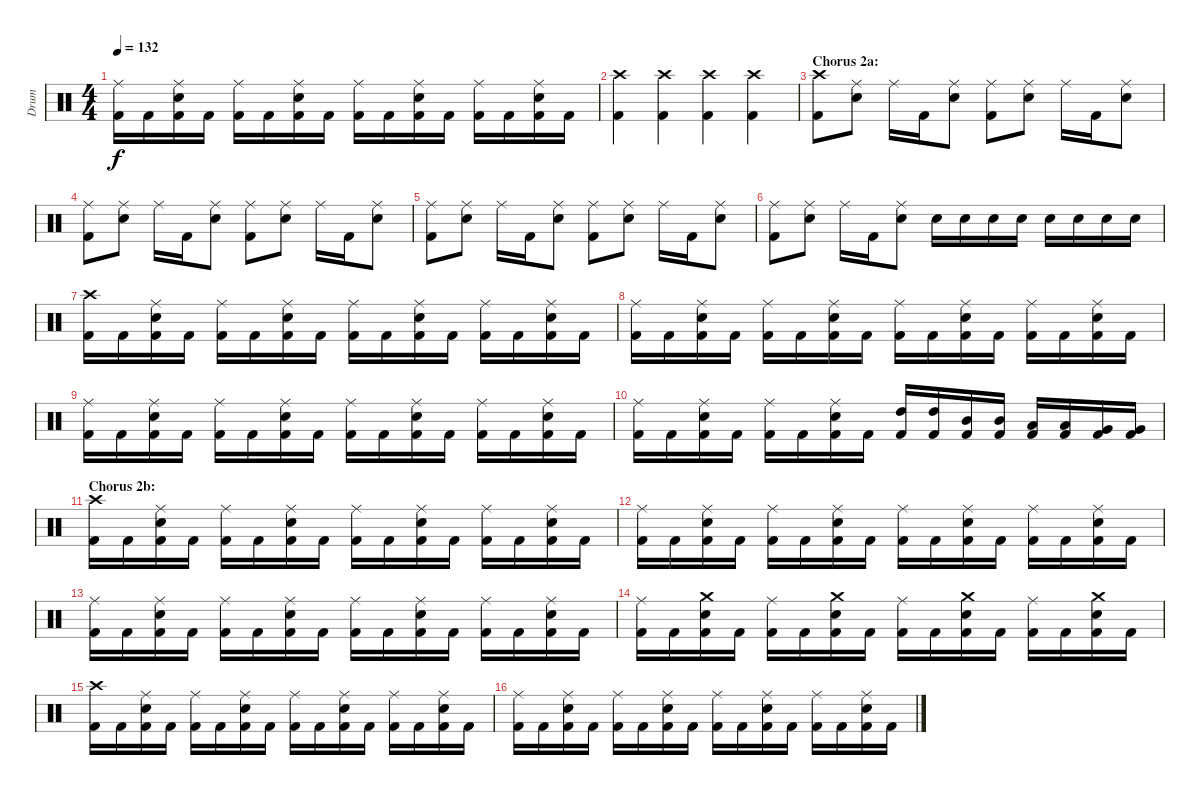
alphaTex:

\track ("Drum" "Drum") {instrument percussion}
\staff {score}
\articulation defaults
\ts (4 4)
\tempo 132
\clef neutral
\ks c
("Kick (hit) 2" "Ride (middle)").16{dy f} "Kick (hit) 2".16 ("Kick (hit) 2" "Snare (hit) 2" "Ride (middle)").16 "Kick (hit) 2".16 ("Kick (hit) 2" "Ride (middle)").16 "Kick (hit) 2".16 ("Kick (hit) 2" "Snare (hit) 2" "Ride (middle)").16 "Kick (hit) 2".16 ("Kick (hit) 2" "Ride (middle)").16 "Kick (hit) 2".16 ("Kick (hit) 2" "Snare (hit) 2" "Ride (middle)").16 "Kick (hit) 2".16 ("Kick (hit) 2" "Ride (middle)").16 "Kick (hit) 2".16 ("Kick (hit) 2" "Snare (hit) 2" "Ride (middle)").16 "Kick (hit) 2".16 |
("Kick (hit) 2" "Crash high (hit)").4 ("Kick (hit) 2" "Crash high (hit)").4 ("Kick (hit) 2" "Crash high (hit)").4 ("Kick (hit) 2" "Crash high (hit)").4 |
\section ("" "Chorus 2a:")
("Kick (hit) 2" "Crash high (hit)").8 ("Snare (hit) 2" "Ride (middle)").8 "Ride (middle)".16 "Kick (hit) 2".16 ("Snare (hit) 2" "Ride (middle)").8 ("Kick (hit) 2" "Ride (middle)").8 ("Snare (hit) 2" "Ride (middle)").8 "Ride (middle)".16 "Kick (hit) 2".16 ("Snare (hit) 2" "Ride (middle)").8 |
("Kick (hit) 2" "Ride (middle)").8 ("Snare (hit) 2" "Ride (middle)").8 "Ride (middle)".16 "Kick (hit) 2".16 ("Snare (hit) 2" "Ride (middle)").8 ("Kick (hit) 2" "Ride (middle)").8 ("Snare (hit) 2" "Ride (middle)").8 "Ride (middle)".16 "Kick (hit) 2".16 ("Snare (hit) 2" "Ride (middle)").8 |
("Kick (hit) 2" "Ride (middle)").8 ("Snare (hit) 2" "Ride (middle)").8 "Ride (middle)".16 "Kick (hit) 2".16 ("Snare (hit) 2" "Ride (middle)").8 ("Kick (hit) 2" "Ride (middle)").8 ("Snare (hit) 2" "Ride (middle)").8 "Ride (middle)".16 "Kick (hit) 2".16 ("Snare (hit) 2" "Ride (middle)").8 |
("Kick (hit) 2" "Ride (middle)").8 ("Snare (hit) 2" "Ride (middle)").8 "Ride (middle)".16 "Kick (hit) 2".16 ("Snare (hit) 2" "Ride (middle)").8 "Snare (hit) 2".16 "Snare (hit) 2".16 "Snare (hit) 2".16 "Snare (hit) 2".16 "Snare (hit) 2".16 "Snare (hit) 2".16 "Snare (hit) 2".16 "Snare (hit) 2".16 |
("Kick (hit) 2" "Crash high (hit)").16 "Kick (hit) 2".16 ("Kick (hit) 2" "Snare (hit) 2" "Ride (middle)").16 "Kick (hit) 2".16 ("Kick (hit) 2" "Ride (middle)").16 "Kick (hit) 2".16 ("Kick (hit) 2" "Snare (hit) 2" "Ride (middle)").16 "Kick (hit) 2".16 ("Kick (hit) 2" "Ride (middle)").16 "Kick (hit) 2".16 ("Kick (hit) 2" "Snare (hit) 2" "Ride (middle)").16 "Kick (hit) 2".16 ("Kick (hit) 2" "Ride (middle)").16 "Kick (hit) 2".16 ("Kick (hit) 2" "Snare (hit) 2" "Ride (middle)").16 "Kick (hit) 2".16 |
("Kick (hit) 2" "Ride (middle)").16 "Kick (hit) 2".16 ("Kick (hit) 2" "Snare (hit) 2" "Ride (middle)").16 "Kick (hit) 2".16 ("Kick (hit) 2" "Ride (middle)").16 "Kick (hit) 2".16 ("Kick (hit) 2" "Snare (hit) 2" "Ride (middle)").16 "Kick (hit) 2".16 ("Kick (hit) 2" "Ride (middle)").16 "Kick (hit) 2".16 ("Kick (hit) 2" "Snare (hit) 2" "Ride (middle)").16 "Kick (hit) 2".16 ("Kick (hit) 2" "Ride (middle)").16 "Kick (hit) 2".16 ("Kick (hit) 2" "Snare (hit) 2" "Ride (middle)").16 "Kick (hit) 2".16 |
("Kick (hit) 2" "Ride (middle)").16 "Kick (hit) 2".16 ("Kick (hit) 2" "Snare (hit) 2" "Ride (middle)").16 "Kick (hit) 2".16 ("Kick (hit) 2" "Ride (middle)").16 "Kick (hit) 2".16 ("Kick (hit) 2" "Snare (hit) 2" "Ride (middle)").16 "Kick (hit) 2".16 ("Kick (hit) 2" "Ride (middle)").16 "Kick (hit) 2".16 ("Kick (hit) 2" "Snare (hit) 2" "Ride (middle)").16 "Kick (hit) 2".16 ("Kick (hit) 2" "Ride (middle)").16 "Kick (hit) 2".16 ("Kick (hit) 2" "Snare (hit) 2" "Ride (middle)").16 "Kick (hit) 2".16 |
("Kick (hit) 2" "Ride (middle)").16 "Kick (hit) 2".16 ("Kick (hit) 2" "Snare (hit) 2" "Ride (middle)").16 "Kick (hit) 2".16 ("Kick (hit) 2" "Ride (middle)").16 "Kick (hit) 2".16 ("Kick (hit) 2" "Snare (hit) 2" "Ride (middle)").16 "Kick (hit) 2".16 ("Kick (hit) 2" "High Tom (hit)").16 ("Kick (hit) 2" "High Tom (hit)").16 ("Kick (hit) 2" "Mid Tom (hit)").16 ("Kick (hit) 2" "Mid Tom (hit)").16 ("Kick (hit) 2" "Low Tom (hit)").16 ("Kick (hit) 2" "Low Tom (hit)").16 ("Kick (hit) 2" "Very Low Tom (hit)").16 ("Kick (hit) 2" "Very Low Tom (hit)").16 |
\section ("" "Chorus 2b:")
("Kick (hit) 2" "Crash high (hit)").16 "Kick (hit) 2".16 ("Kick (hit) 2" "Snare (hit) 2" "Ride (middle)").16 "Kick (hit) 2".16 ("Kick (hit) 2" "Ride (middle)").16 "Kick (hit) 2".16 ("Kick (hit) 2" "Snare (hit) 2" "Ride (middle)").16 "Kick (hit) 2".16 ("Kick (hit) 2" "Ride (middle)").16 "Kick (hit) 2".16 ("Kick (hit) 2" "Snare (hit) 2" "Ride (middle)").16 "Kick (hit) 2".16 ("Kick (hit) 2" "Ride (middle)").16 "Kick (hit) 2".16 ("Kick (hit) 2" "Snare (hit) 2" "Ride (middle)").16 "Kick (hit) 2".16 |
("Kick (hit) 2" "Ride (middle)").16 "Kick (hit) 2".16 ("Kick (hit) 2" "Snare (hit) 2" "Ride (middle)").16 "Kick (hit) 2".16 ("Kick (hit) 2" "Ride (middle)").16 "Kick (hit) 2".16 ("Kick (hit) 2" "Snare (hit) 2" "Ride (middle)").16 "Kick (hit) 2".16 ("Kick (hit) 2" "Ride (middle)").16 "Kick (hit) 2".16 ("Kick (hit) 2" "Snare (hit) 2" "Ride (middle)").16 "Kick (hit) 2".16 ("Kick (hit) 2" "Ride (middle)").16 "Kick (hit) 2".16 ("Kick (hit) 2" "Snare (hit) 2" "Ride (middle)").16 "Kick (hit) 2".16 |
("Kick (hit) 2" "Ride (middle)").16 "Kick (hit) 2".16 ("Kick (hit) 2" "Snare (hit) 2" "Ride (middle)").16 "Kick (hit) 2".16 ("Kick (hit) 2" "Ride (middle)").16 "Kick (hit) 2".16 ("Kick (hit) 2" "Snare (hit) 2" "Ride (middle)").16 "Kick (hit) 2".16 ("Kick (hit) 2" "Ride (middle)").16 "Kick (hit) 2".16 ("Kick (hit) 2" "Snare (hit) 2" "Ride (middle)").16 "Kick (hit) 2".16 ("Kick (hit) 2" "Ride (middle)").16 "Kick (hit) 2".16 ("Kick (hit) 2" "Snare (hit) 2" "Ride (middle)").16 "Kick (hit) 2".16 |
("Kick (hit) 2" "Ride (middle)").16 "Kick (hit) 2".16 ("Kick (hit) 2" "Snare (hit) 2" "Crash medium (hit)").16 "Kick (hit) 2".16 ("Kick (hit) 2" "Ride (middle)").16 "Kick (hit) 2".16 ("Kick (hit) 2" "Snare (hit) 2" "Crash medium (hit)").16 "Kick (hit) 2".16 ("Kick (hit) 2" "Ride (middle)").16 "Kick (hit) 2".16 ("Kick (hit) 2" "Snare (hit) 2" "Crash medium (hit)").16 "Kick (hit) 2".16 ("Kick (hit) 2" "Ride (middle)").16 "Kick (hit) 2".16 ("Kick (hit) 2" "Snare (hit) 2" "Crash medium (hit)").16 "Kick (hit) 2".16 |
("Kick (hit) 2" "Crash high (hit)").16 "Kick (hit) 2".16 ("Kick (hit) 2" "Snare (hit) 2" "Ride (middle)").16 "Kick (hit) 2".16 ("Kick (hit) 2" "Ride (middle)").16 "Kick (hit) 2".16 ("Kick (hit) 2" "Snare (hit) 2" "Ride (middle)").16 "Kick (hit) 2".16 ("Kick (hit) 2" "Ride (middle)").16 "Kick (hit) 2".16 ("Kick (hit) 2" "Snare (hit) 2" "Ride (middle)").16 "Kick (hit) 2".16 ("Kick (hit) 2" "Ride (middle)").16 "Kick (hit) 2".16 ("Kick (hit) 2" "Snare (hit) 2" "Ride (middle)").16 "Kick (hit) 2".16 |
("Kick (hit) 2" "Ride (middle)").16 "Kick (hit) 2".16 ("Kick (hit) 2" "Snare (hit) 2" "Ride (middle)").16 "Kick (hit) 2".16 ("Kick (hit) 2" "Ride (middle)").16 "Kick (hit) 2".16 ("Kick (hit) 2" "Snare (hit) 2" "Ride (middle)").16 "Kick (hit) 2".16 ("Kick (hit) 2" "Ride (middle)").16 "Kick (hit) 2".16 ("Kick (hit) 2" "Snare (hit) 2" "Ride (middle)").16 "Kick (hit) 2".16 ("Kick (hit) 2" "Ride (middle)").16 "Kick (hit) 2".16 ("Kick (hit) 2" "Snare (hit) 2" "Ride (middle)").16 "Kick (hit) 2".16
